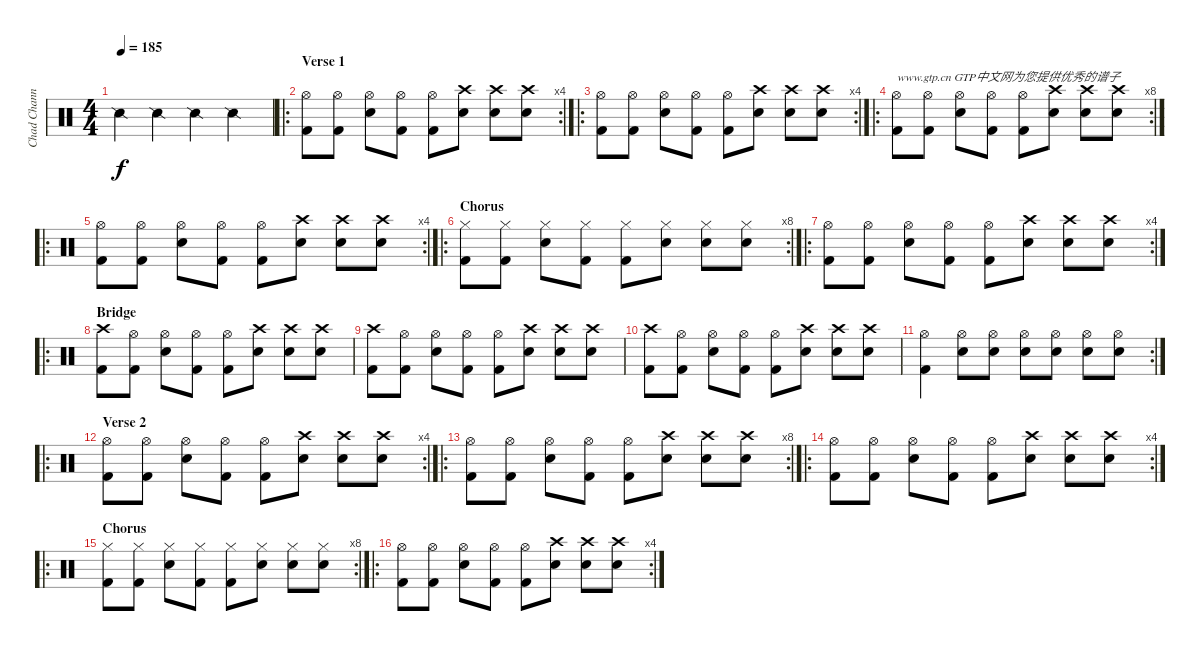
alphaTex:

\track ("Chad Channing" "Chad Chann") {instrument percussion}
\staff {score}
\articulation defaults
\ts (4 4)
\tempo 185
\clef neutral
\ks c "Snare (side stick) 2".4{dy f} "Snare (side stick) 2".4 "Snare (side stick) 2".4 "Snare (side stick) 2".4
|
\ro
\rc 4
\section ("" "Verse 1")
("Hi-Hat (open)" "Kick (hit) 2").8 ("Hi-Hat (open)" "Kick (hit) 2").8 ("Hi-Hat (open)" "Electric Snare (hit)").8 ("Hi-Hat (open)" "Kick (hit) 2").8 ("Hi-Hat (open)" "Kick (hit) 2").8 ("Crash high (hit)" "Electric Snare (hit)").8 ("Crash high (hit)" "Electric Snare (hit)").8 ("Crash high (hit)" "Electric Snare (hit)").8 |
\ro
\rc 4
("Hi-Hat (open)" "Kick (hit) 2").8 ("Hi-Hat (open)" "Kick (hit) 2").8 ("Hi-Hat (open)" "Electric Snare (hit)").8 ("Hi-Hat (open)" "Kick (hit) 2").8 ("Hi-Hat (open)" "Kick (hit) 2").8 ("Crash high (hit)" "Electric Snare (hit)").8 ("Crash high (hit)" "Electric Snare (hit)").8 ("Crash high (hit)" "Electric Snare (hit)").8 |
\ro
\rc 8
("Hi-Hat (open)" "Kick (hit) 2").8{txt "www.gtp.cn GTP中文网为您提供优秀的谱子"} ("Hi-Hat (open)" "Kick (hit) 2").8 ("Hi-Hat (open)" "Electric Snare (hit)").8 ("Hi-Hat (open)" "Kick (hit) 2").8 ("Hi-Hat (open)" "Kick (hit) 2").8 ("Crash high (hit)" "Electric Snare (hit)").8 ("Crash high (hit)" "Electric Snare (hit)").8 ("Crash high (hit)" "Electric Snare (hit)").8 |
\ro
\rc 4
("Hi-Hat (open)" "Kick (hit) 2").8 ("Hi-Hat (open)" "Kick (hit) 2").8 ("Hi-Hat (open)" "Electric Snare (hit)").8 ("Hi-Hat (open)" "Kick (hit) 2").8 ("Hi-Hat (open)" "Kick (hit) 2").8 ("Crash high (hit)" "Electric Snare (hit)").8 ("Crash high (hit)" "Electric Snare (hit)").8 ("Crash high (hit)" "Electric Snare (hit)").8 |
\ro
\rc 8
\section ("" "Chorus")
("Hi-Hat (closed)" "Kick (hit) 2").8 ("Hi-Hat (closed)" "Kick (hit) 2").8 ("Hi-Hat (closed)" "Electric Snare (hit)").8 ("Hi-Hat (closed)" "Kick (hit) 2").8 ("Hi-Hat (closed)" "Kick (hit) 2").8 ("Hi-Hat (closed)" "Electric Snare (hit)").8 ("Hi-Hat (closed)" "Electric Snare (hit)").8 ("Hi-Hat (closed)" "Electric Snare (hit)").8 |
\ro
\rc 4
("Hi-Hat (open)" "Kick (hit) 2").8 ("Hi-Hat (open)" "Kick (hit) 2").8 ("Hi-Hat (open)" "Electric Snare (hit)").8 ("Hi-Hat (open)" "Kick (hit) 2").8 ("Hi-Hat (open)" "Kick (hit) 2").8 ("Crash high (hit)" "Electric Snare (hit)").8 ("Crash high (hit)" "Electric Snare (hit)").8 ("Crash high (hit)" "Electric Snare (hit)").8 |
\ro
\section ("" "Bridge")
("Crash high (hit)" "Kick (hit) 2").8 ("Hi-Hat (open)" "Kick (hit) 2").8 ("Hi-Hat (open)" "Electric Snare (hit)").8 ("Hi-Hat (open)" "Kick (hit) 2").8 ("Hi-Hat (open)" "Kick (hit) 2").8 ("Crash high (hit)" "Electric Snare (hit)").8 ("Crash high (hit)" "Electric Snare (hit)").8 ("Crash high (hit)" "Electric Snare (hit)").8 |
("Crash high (hit)" "Kick (hit) 2").8 ("Hi-Hat (open)" "Kick (hit) 2").8 ("Hi-Hat (open)" "Electric Snare (hit)").8 ("Hi-Hat (open)" "Kick (hit) 2").8 ("Hi-Hat (open)" "Kick (hit) 2").8 ("Crash high (hit)" "Electric Snare (hit)").8 ("Crash high (hit)" "Electric Snare (hit)").8 ("Crash high (hit)" "Electric Snare (hit)").8 |
("Crash high (hit)" "Kick (hit) 2").8 ("Hi-Hat (open)" "Kick (hit) 2").8 ("Hi-Hat (open)" "Electric Snare (hit)").8 ("Hi-Hat (open)" "Kick (hit) 2").8 ("Hi-Hat (open)" "Kick (hit) 2").8 ("Crash high (hit)" "Electric Snare (hit)").8 ("Crash high (hit)" "Electric Snare (hit)").8 ("Crash high (hit)" "Electric Snare (hit)").8 |
\rc 2
("Hi-Hat (open)" "Kick (hit) 2").4 ("Hi-Hat (open)" "Electric Snare (hit)").8 ("Hi-Hat (open)" "Electric Snare (hit)").8 ("Hi-Hat (open)" "Electric Snare (hit)").8 ("Hi-Hat (open)" "Electric Snare (hit)").8 ("Hi-Hat (open)" "Electric Snare (hit)").8 ("Hi-Hat (open)" "Electric Snare (hit)").8 |
\ro
\rc 4
\section ("" "Verse 2")
("Hi-Hat (open)" "Kick (hit) 2").8 ("Hi-Hat (open)" "Kick (hit) 2").8 ("Hi-Hat (open)" "Electric Snare (hit)").8 ("Hi-Hat (open)" "Kick (hit) 2").8 ("Hi-Hat (open)" "Kick (hit) 2").8 ("Crash high (hit)" "Electric Snare (hit)").8 ("Crash high (hit)" "Electric Snare (hit)").8 ("Crash high (hit)" "Electric Snare (hit)").8 |
\ro
\rc 8
("Hi-Hat (open)" "Kick (hit) 2").8 ("Hi-Hat (open)" "Kick (hit) 2").8 ("Hi-Hat (open)" "Electric Snare (hit)").8 ("Hi-Hat (open)" "Kick (hit) 2").8 ("Hi-Hat (open)" "Kick (hit) 2").8 ("Crash high (hit)" "Electric Snare (hit)").8 ("Crash high (hit)" "Electric Snare (hit)").8 ("Crash high (hit)" "Electric Snare (hit)").8 |
\ro
\rc 4
("Hi-Hat (open)" "Kick (hit) 2").8 ("Hi-Hat (open)" "Kick (hit) 2").8 ("Hi-Hat (open)" "Electric Snare (hit)").8 ("Hi-Hat (open)" "Kick (hit) 2").8 ("Hi-Hat (open)" "Kick (hit) 2").8 ("Crash high (hit)" "Electric Snare (hit)").8 ("Crash high (hit)" "Electric Snare (hit)").8 ("Crash high (hit)" "Electric Snare (hit)").8 |
\ro
\rc 8
\section ("" "Chorus")
("Hi-Hat (closed)" "Kick (hit) 2").8 ("Hi-Hat (closed)" "Kick (hit) 2").8 ("Hi-Hat (closed)" "Electric Snare (hit)").8 ("Hi-Hat (closed)" "Kick (hit) 2").8 ("Hi-Hat (closed)" "Kick (hit) 2").8 ("Hi-Hat (closed)" "Electric Snare (hit)").8 ("Hi-Hat (closed)" "Electric Snare (hit)").8 ("Hi-Hat (closed)" "Electric Snare (hit)").8 |
\ro
\rc 4
("Hi-Hat (open)" "Kick (hit) 2").8 ("Hi-Hat (open)" "Kick (hit) 2").8 ("Hi-Hat (open)" "Electric Snare (hit)").8 ("Hi-Hat (open)" "Kick (hit) 2").8 ("Hi-Hat (open)" "Kick (hit) 2").8 ("Crash high (hit)" "Electric Snare (hit)").8 ("Crash high (hit)" "Electric Snare (hit)").8 ("Crash high (hit)" "Electric Snare (hit)").8
